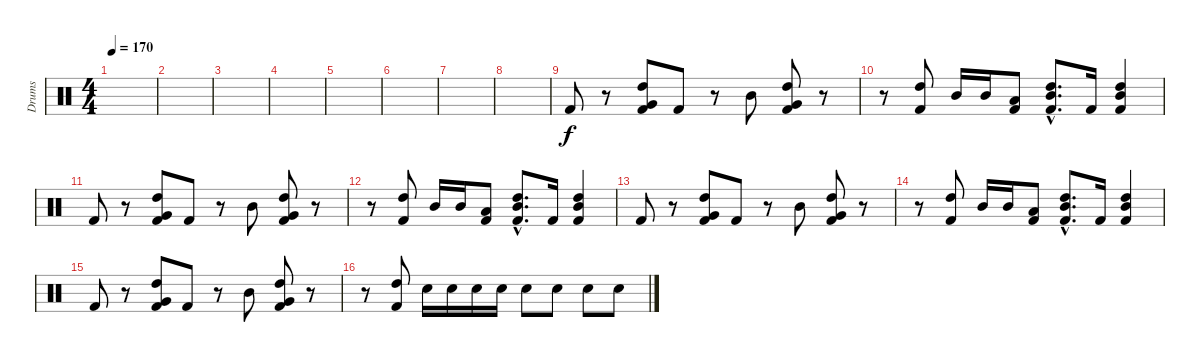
\track ("Drums" "Drums") {instrument percussion}
\staff {score}
\articulation defaults
\ts (4 4)
\tempo 170
\clef neutral
\ks c
|
|
|
|
|
|
|
|
"Kick (hit) 2".8 r.8 ("High Tom (hit)" "Very Low Tom (hit)" "Kick (hit) 2").8 "Kick (hit) 2".8 r.8 "Mid Tom (hit)".8 ("High Tom (hit)" "Very Low Tom (hit)" "Kick (hit) 2").8 r.8 |
r.8 ("High Tom (hit)" "Kick (hit) 2").8 "Mid Tom (hit)".16 "Mid Tom (hit)".16 ("Low Tom (hit)" "Kick (hit) 2").8 ("High Tom (hit)"{hac} "Mid Tom (hit)"{hac} "Kick (hit) 2"{hac}).8{d} "Kick (hit) 2".16 ("High Tom (hit)" "Mid Tom (hit)" "Kick (hit) 2").4 |
"Kick (hit) 2".8 r.8 ("High Tom (hit)" "Very Low Tom (hit)" "Kick (hit) 2").8 "Kick (hit) 2".8 r.8 "Mid Tom (hit)".8 ("High Tom (hit)" "Very Low Tom (hit)" "Kick (hit) 2").8 r.8 |
r.8 ("High Tom (hit)" "Kick (hit) 2").8 "Mid Tom (hit)".16 "Mid Tom (hit)".16 ("Low Tom (hit)" "Kick (hit) 2").8 ("High Tom (hit)"{hac} "Mid Tom (hit)"{hac} "Kick (hit) 2"{hac}).8{d} "Kick (hit) 2".16 ("High Tom (hit)" "Mid Tom (hit)" "Kick (hit) 2").4 |
"Kick (hit) 2".8 r.8 ("High Tom (hit)" "Very Low Tom (hit)" "Kick (hit) 2").8 "Kick (hit) 2".8 r.8 "Mid Tom (hit)".8 ("High Tom (hit)" "Very Low Tom (hit)" "Kick (hit) 2").8 r.8 |
r.8 ("High Tom (hit)" "Kick (hit) 2").8 "Mid Tom (hit)".16 "Mid Tom (hit)".16 ("Low Tom (hit)" "Kick (hit) 2").8 ("High Tom (hit)"{hac} "Mid Tom (hit)"{hac} "Kick (hit) 2"{hac}).8{d} "Kick (hit) 2".16 ("High Tom (hit)" "Mid Tom (hit)" "Kick (hit) 2").4 |
"Kick (hit) 2".8 r.8 ("High Tom (hit)" "Very Low Tom (hit)" "Kick (hit) 2").8 "Kick (hit) 2".8 r.8 "Mid Tom (hit)".8 ("High Tom (hit)" "Very Low Tom (hit)" "Kick (hit) 2").8 r.8 |
r.8 ("High Tom (hit)" "Kick (hit) 2").8 "Electric Snare (hit)".16 "Electric Snare (hit)".16 "Electric Snare (hit)".16 "Electric Snare (hit)".16 "Electric Snare (hit)".8 "Electric Snare (hit)".8 "Electric Snare (hit)".8 "Electric Snare (hit)".8
